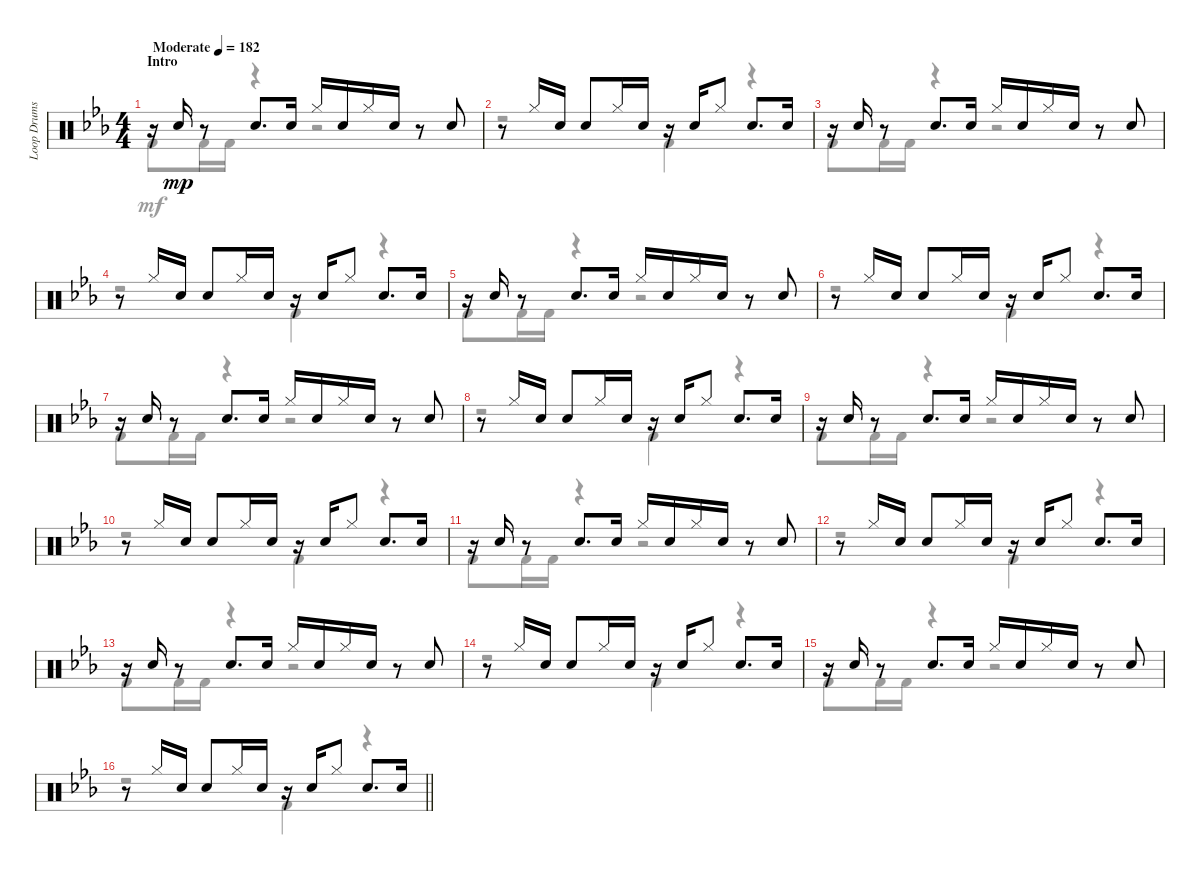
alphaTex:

\track ("Loop Drums" "Loop Drums") {instrument percussion}
\staff {score}
\articulation defaults
\voice
\ts (4 4)
\section ("" "Intro")
\tempo (182 "Moderate")
\clef neutral
\ks eb
r.16{dy mp} "Electric Snare (hit)".16 r.8 "Electric Snare (hit)".8{d} "Electric Snare (hit)".16 "Hi-Hat (closed)".16 "Electric Snare (hit)".16 "Hi-Hat (closed)".16 "Electric Snare (hit)".16 r.8 "Electric Snare (hit)".8 |
r.8 "Hi-Hat (closed)".16 "Electric Snare (hit)".16 "Electric Snare (hit)".8 "Hi-Hat (closed)".16 "Electric Snare (hit)".16 r.16 "Electric Snare (hit)".16 "Hi-Hat (closed)".8 "Electric Snare (hit)".8{d} "Electric Snare (hit)".16 |
r.16 "Electric Snare (hit)".16 r.8 "Electric Snare (hit)".8{d} "Electric Snare (hit)".16 "Hi-Hat (closed)".16 "Electric Snare (hit)".16 "Hi-Hat (closed)".16 "Electric Snare (hit)".16 r.8 "Electric Snare (hit)".8 |
r.8 "Hi-Hat (closed)".16 "Electric Snare (hit)".16 "Electric Snare (hit)".8 "Hi-Hat (closed)".16 "Electric Snare (hit)".16 r.16 "Electric Snare (hit)".16 "Hi-Hat (closed)".8 "Electric Snare (hit)".8{d} "Electric Snare (hit)".16 |
r.16 "Electric Snare (hit)".16 r.8 "Electric Snare (hit)".8{d} "Electric Snare (hit)".16 "Hi-Hat (closed)".16 "Electric Snare (hit)".16 "Hi-Hat (closed)".16 "Electric Snare (hit)".16 r.8 "Electric Snare (hit)".8 |
r.8 "Hi-Hat (closed)".16 "Electric Snare (hit)".16 "Electric Snare (hit)".8 "Hi-Hat (closed)".16 "Electric Snare (hit)".16 r.16 "Electric Snare (hit)".16 "Hi-Hat (closed)".8 "Electric Snare (hit)".8{d} "Electric Snare (hit)".16 |
r.16 "Electric Snare (hit)".16 r.8 "Electric Snare (hit)".8{d} "Electric Snare (hit)".16 "Hi-Hat (closed)".16 "Electric Snare (hit)".16 "Hi-Hat (closed)".16 "Electric Snare (hit)".16 r.8 "Electric Snare (hit)".8 |
r.8 "Hi-Hat (closed)".16 "Electric Snare (hit)".16 "Electric Snare (hit)".8 "Hi-Hat (closed)".16 "Electric Snare (hit)".16 r.16 "Electric Snare (hit)".16 "Hi-Hat (closed)".8 "Electric Snare (hit)".8{d} "Electric Snare (hit)".16 |
r.16 "Electric Snare (hit)".16 r.8 "Electric Snare (hit)".8{d} "Electric Snare (hit)".16 "Hi-Hat (closed)".16 "Electric Snare (hit)".16 "Hi-Hat (closed)".16 "Electric Snare (hit)".16 r.8 "Electric Snare (hit)".8 |
r.8 "Hi-Hat (closed)".16 "Electric Snare (hit)".16 "Electric Snare (hit)".8 "Hi-Hat (closed)".16 "Electric Snare (hit)".16 r.16 "Electric Snare (hit)".16 "Hi-Hat (closed)".8 "Electric Snare (hit)".8{d} "Electric Snare (hit)".16 |
r.16 "Electric Snare (hit)".16 r.8 "Electric Snare (hit)".8{d} "Electric Snare (hit)".16 "Hi-Hat (closed)".16 "Electric Snare (hit)".16 "Hi-Hat (closed)".16 "Electric Snare (hit)".16 r.8 "Electric Snare (hit)".8 |
r.8 "Hi-Hat (closed)".16 "Electric Snare (hit)".16 "Electric Snare (hit)".8 "Hi-Hat (closed)".16 "Electric Snare (hit)".16 r.16 "Electric Snare (hit)".16 "Hi-Hat (closed)".8 "Electric Snare (hit)".8{d} "Electric Snare (hit)".16 |
r.16 "Electric Snare (hit)".16 r.8 "Electric Snare (hit)".8{d} "Electric Snare (hit)".16 "Hi-Hat (closed)".16 "Electric Snare (hit)".16 "Hi-Hat (closed)".16 "Electric Snare (hit)".16 r.8 "Electric Snare (hit)".8 |
r.8 "Hi-Hat (closed)".16 "Electric Snare (hit)".16 "Electric Snare (hit)".8 "Hi-Hat (closed)".16 "Electric Snare (hit)".16 r.16 "Electric Snare (hit)".16 "Hi-Hat (closed)".8 "Electric Snare (hit)".8{d} "Electric Snare (hit)".16 |
r.16 "Electric Snare (hit)".16 r.8 "Electric Snare (hit)".8{d} "Electric Snare (hit)".16 "Hi-Hat (closed)".16 "Electric Snare (hit)".16 "Hi-Hat (closed)".16 "Electric Snare (hit)".16 r.8 "Electric Snare (hit)".8 |
\barLineRight lightlight
r.8 "Hi-Hat (closed)".16 "Electric Snare (hit)".16 "Electric Snare (hit)".8 "Hi-Hat (closed)".16 "Electric Snare (hit)".16 r.16 "Electric Snare (hit)".16 "Hi-Hat (closed)".8 "Electric Snare (hit)".8{d} "Electric Snare (hit)".16
\voice
\clef neutral
\ottava regular
\simile none
\ks eb "Kick (hit) 2".8{dy mf} "Kick (hit) 2".16 "Kick (hit) 2".16
r.4 r.2 |
r.2 "Kick (hit) 2".4 r.4 |
"Kick (hit) 2".8 "Kick (hit) 2".16 "Kick (hit) 2".16 r.4 r.2 |
r.2 "Kick (hit) 2".4 r.4 |
"Kick (hit) 2".8 "Kick (hit) 2".16 "Kick (hit) 2".16 r.4 r.2 |
r.2 "Kick (hit) 2".4 r.4 |
"Kick (hit) 2".8 "Kick (hit) 2".16 "Kick (hit) 2".16 r.4 r.2 |
r.2 "Kick (hit) 2".4 r.4 |
"Kick (hit) 2".8 "Kick (hit) 2".16 "Kick (hit) 2".16 r.4 r.2 |
r.2 "Kick (hit) 2".4 r.4 |
"Kick (hit) 2".8 "Kick (hit) 2".16 "Kick (hit) 2".16 r.4 r.2 |
r.2 "Kick (hit) 2".4 r.4 |
"Kick (hit) 2".8 "Kick (hit) 2".16 "Kick (hit) 2".16 r.4 r.2 |
r.2 "Kick (hit) 2".4 r.4 |
"Kick (hit) 2".8 "Kick (hit) 2".16 "Kick (hit) 2".16 r.4 r.2 |
\barLineRight lightlight
r.2 "Kick (hit) 2".4 r.4
